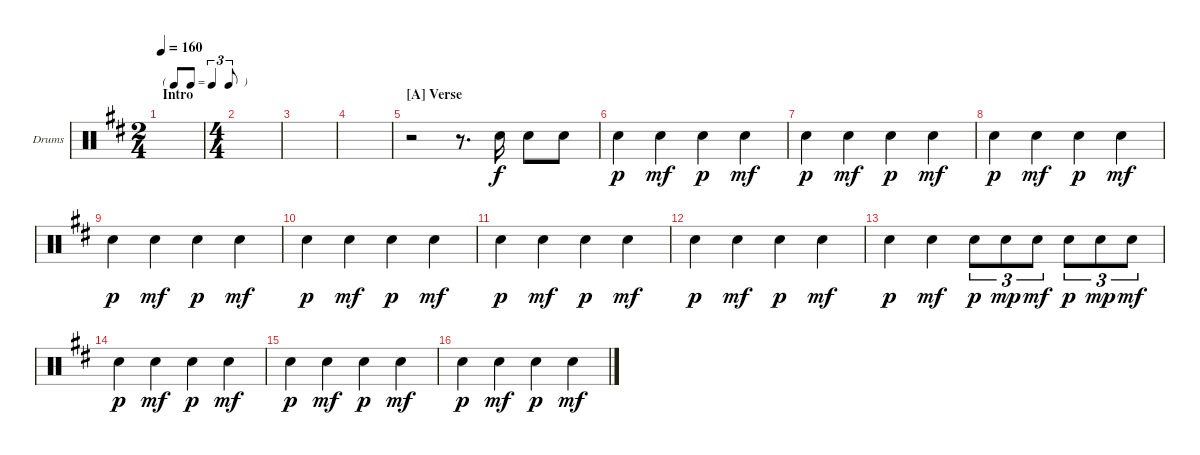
\defaultSystemsLayout 4
\bracketExtendMode groupsimilarinstruments
\firstSystemTrackNameOrientation horizontal
\otherSystemsTrackNameOrientation horizontal
\track ("Hal Blaine" "Drums") {instrument percussion}
\staff {score}
\articulation defaults
\ts (2 4)
\tf triplet8th
\section ("" "Intro")
\tempo 160
\clef neutral
\ks bminor
|
\ts (4 4)
|
|
|
\section ("A" "Verse")
r.2 r.8{d} "Snare (hit) 2".16 "Snare (hit) 2".8 "Snare (hit) 2".8 |
"Snare (hit) 2".4{dy p} "Snare (hit) 2".4{dy mf} "Snare (hit) 2".4{dy p} "Snare (hit) 2".4{dy mf} |
"Snare (hit) 2".4{dy p} "Snare (hit) 2".4{dy mf} "Snare (hit) 2".4{dy p} "Snare (hit) 2".4{dy mf} |
"Snare (hit) 2".4{dy p} "Snare (hit) 2".4{dy mf} "Snare (hit) 2".4{dy p} "Snare (hit) 2".4{dy mf} |
"Snare (hit) 2".4{dy p} "Snare (hit) 2".4{dy mf} "Snare (hit) 2".4{dy p} "Snare (hit) 2".4{dy mf} |
"Snare (hit) 2".4{dy p} "Snare (hit) 2".4{dy mf} "Snare (hit) 2".4{dy p} "Snare (hit) 2".4{dy mf} |
"Snare (hit) 2".4{dy p} "Snare (hit) 2".4{dy mf} "Snare (hit) 2".4{dy p} "Snare (hit) 2".4{dy mf} |
"Snare (hit) 2".4{dy p} "Snare (hit) 2".4{dy mf} "Snare (hit) 2".4{dy p} "Snare (hit) 2".4{dy mf} |
"Snare (hit) 2".4{dy p} "Snare (hit) 2".4{dy mf} "Snare (hit) 2".8{tu (3 2) dy p} "Snare (hit) 2".8{tu (3 2) dy mp} "Snare (hit) 2".8{tu (3 2) dy mf} "Snare (hit) 2".8{tu (3 2) dy p} "Snare (hit) 2".8{tu (3 2) dy mp} "Snare (hit) 2".8{tu (3 2) dy mf} |
"Snare (hit) 2".4{dy p} "Snare (hit) 2".4{dy mf} "Snare (hit) 2".4{dy p} "Snare (hit) 2".4{dy mf} |
"Snare (hit) 2".4{dy p} "Snare (hit) 2".4{dy mf} "Snare (hit) 2".4{dy p} "Snare (hit) 2".4{dy mf} |
"Snare (hit) 2".4{dy p} "Snare (hit) 2".4{dy mf} "Snare (hit) 2".4{dy p} "Snare (hit) 2".4{dy mf}
